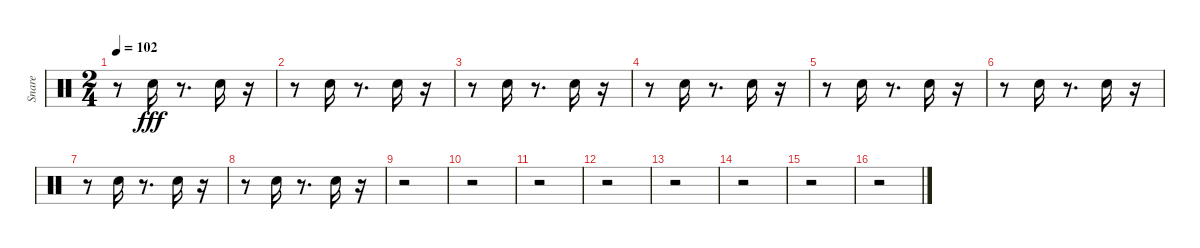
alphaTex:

\track ("Snare" "Snare") {instrument percussion}
\staff {score}
\articulation defaults
\ts (2 4)
\tempo 102
\clef neutral
\ks c
r.8{dy fff} "Electric Snare (hit)".16 r.8{d} "Electric Snare (hit)".16 r.16 |
r.8 "Electric Snare (hit)".16 r.8{d} "Electric Snare (hit)".16 r.16 |
r.8 "Electric Snare (hit)".16 r.8{d} "Electric Snare (hit)".16 r.16 |
r.8 "Electric Snare (hit)".16 r.8{d} "Electric Snare (hit)".16 r.16 |
r.8 "Electric Snare (hit)".16 r.8{d} "Electric Snare (hit)".16 r.16 |
r.8 "Electric Snare (hit)".16 r.8{d} "Electric Snare (hit)".16 r.16 |
r.8 "Electric Snare (hit)".16 r.8{d} "Electric Snare (hit)".16 r.16 |
r.8 "Electric Snare (hit)".16 r.8{d} "Electric Snare (hit)".16 r.16 |
r.2 |
r.2 |
r.2 |
r.2 |
r.2 |
r.2 |
r.2 |
r.2
